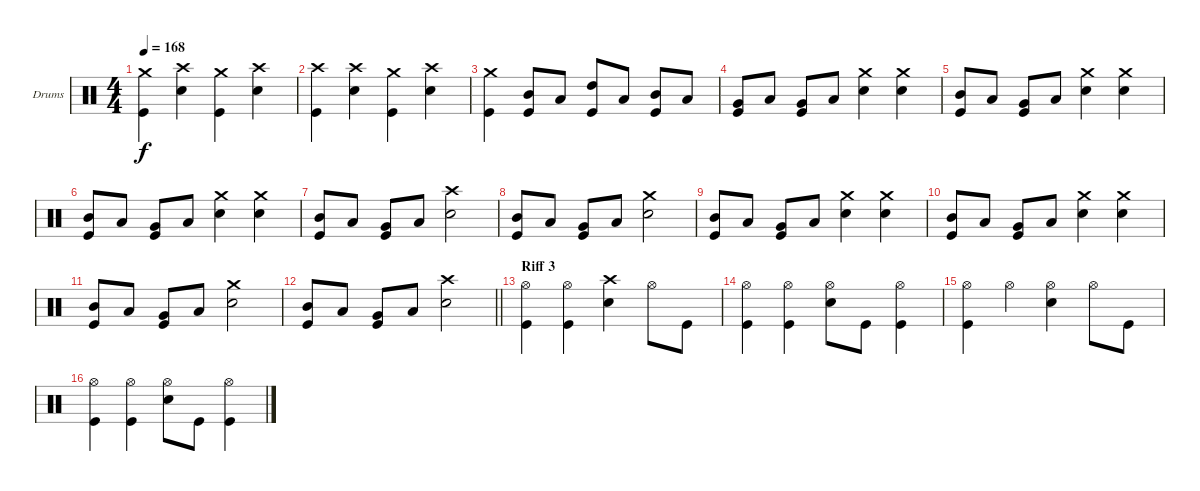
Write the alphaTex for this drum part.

\bracketExtendMode groupsimilarinstruments
\firstSystemTrackNameOrientation horizontal
\otherSystemsTrackNameOrientation horizontal
\track ("Drumkit" "Drums") {instrument percussion}
\staff {score}
\articulation defaults
\ts (4 4)
\tempo 168
\clef neutral
\ks c
("Crash medium (hit)" "Kick (hit)").4{dy f} ("Crash high (hit)" "Snare (hit) 2").4 ("Crash medium (hit)" "Kick (hit)").4 ("Crash high (hit)" "Snare (hit) 2").4 |
("Crash high (hit)" "Kick (hit)").4 ("Crash high (hit)" "Snare (hit) 2").4 ("Crash medium (hit)" "Kick (hit)").4 ("Crash high (hit)" "Snare (hit) 2").4 |
("Crash medium (hit)" "Kick (hit)").4 ("Mid Tom (hit)" "Kick (hit)").8 "Low Tom (hit)".8 ("High Tom (hit)" "Kick (hit)").8 "Low Tom (hit)".8 ("Mid Tom (hit)" "Kick (hit)").8 "Low Tom (hit)".8 |
("Very Low Tom (hit)" "Kick (hit)").8 "Low Tom (hit)".8 ("Very Low Tom (hit)" "Kick (hit)").8 "Low Tom (hit)".8 ("Crash medium (hit)" "Snare (hit) 2").4 ("Crash medium (hit)" "Snare (hit) 2").4 |
("Mid Tom (hit)" "Kick (hit)").8 "Low Tom (hit)".8 ("Very Low Tom (hit)" "Kick (hit)").8 "Low Tom (hit)".8 ("Crash medium (hit)" "Snare (hit) 2").4 ("Crash medium (hit)" "Snare (hit) 2").4 |
("Mid Tom (hit)" "Kick (hit)").8 "Low Tom (hit)".8 ("Very Low Tom (hit)" "Kick (hit)").8 "Low Tom (hit)".8 ("Crash medium (hit)" "Snare (hit) 2").4 ("Crash medium (hit)" "Snare (hit) 2").4 |
("Mid Tom (hit)" "Kick (hit)").8 "Low Tom (hit)".8 ("Very Low Tom (hit)" "Kick (hit)").8 "Low Tom (hit)".8 ("Crash high (hit)" "Snare (hit) 2").2 |
("Mid Tom (hit)" "Kick (hit)").8 "Low Tom (hit)".8 ("Very Low Tom (hit)" "Kick (hit)").8 "Low Tom (hit)".8 ("Crash medium (hit)" "Snare (hit) 2").2 |
("Mid Tom (hit)" "Kick (hit)").8 "Low Tom (hit)".8 ("Very Low Tom (hit)" "Kick (hit)").8 "Low Tom (hit)".8 ("Crash medium (hit)" "Snare (hit) 2").4 ("Crash medium (hit)" "Snare (hit) 2").4 |
("Mid Tom (hit)" "Kick (hit)").8 "Low Tom (hit)".8 ("Very Low Tom (hit)" "Kick (hit)").8 "Low Tom (hit)".8 ("Crash medium (hit)" "Snare (hit) 2").4 ("Crash medium (hit)" "Snare (hit) 2").4 |
("Mid Tom (hit)" "Kick (hit)").8 "Low Tom (hit)".8 ("Very Low Tom (hit)" "Kick (hit)").8 "Low Tom (hit)".8 ("Crash medium (hit)" "Snare (hit) 2").2 |
\barLineRight lightlight
("Mid Tom (hit)" "Kick (hit)").8 "Low Tom (hit)".8 ("Very Low Tom (hit)" "Kick (hit)").8 "Low Tom (hit)".8 ("Crash high (hit)" "Snare (hit) 2").2 |
\section ("" "Riff 3")
("Hi-Hat (open)" "Kick (hit)").4 ("Hi-Hat (open)" "Kick (hit)").4 ("Crash high (hit)" "Snare (hit) 2").4 "Hi-Hat (open)".8 "Kick (hit)".8 |
("Hi-Hat (open)" "Kick (hit)").4 ("Hi-Hat (open)" "Kick (hit)").4 ("Hi-Hat (open)" "Snare (hit) 2").8 "Kick (hit)".8 ("Hi-Hat (open)" "Kick (hit)").4 |
("Hi-Hat (open)" "Kick (hit)").4 "Hi-Hat (open)".4 ("Hi-Hat (open)" "Snare (hit) 2").4 "Hi-Hat (open)".8 "Kick (hit)".8 |
("Hi-Hat (open)" "Kick (hit)").4 ("Hi-Hat (open)" "Kick (hit)").4 ("Hi-Hat (open)" "Snare (hit) 2").8 "Kick (hit)".8 ("Hi-Hat (open)" "Kick (hit)").4
